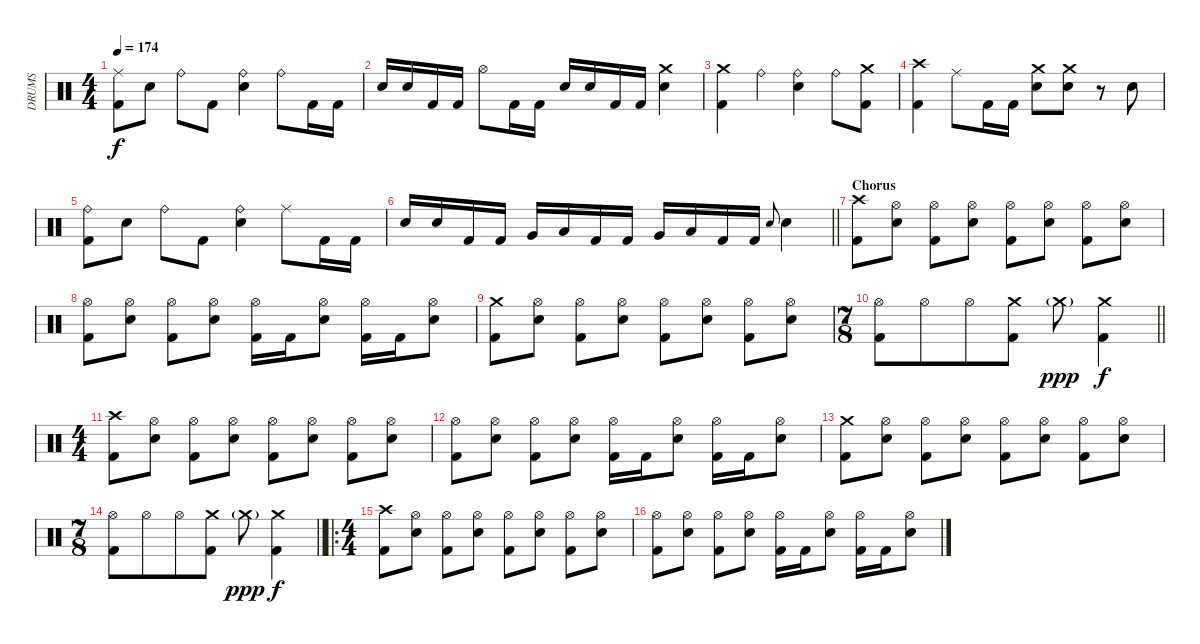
\track ("DRUMS" "DRUMS") {instrument percussion}
\staff {score}
\articulation defaults
\ts (4 4)
\tempo 174
\clef neutral
\ks c
("Ride (middle)" "Kick (hit) 2").8{dy f} "Snare (hit) 2".8 "Ride (bell)".8 "Kick (hit) 2".8 ("Ride (bell)" "Snare (hit) 2").4 "Ride (bell)".8 "Kick (hit) 2".16 "Kick (hit) 2".16 |
"Snare (hit) 2".16 "Snare (hit) 2".16 "Kick (hit) 2".16 "Kick (hit) 2".16 "Hi-Hat (open)".8 "Kick (hit) 2".16 "Kick (hit) 2".16 "Snare (hit) 2".16 "Snare (hit) 2".16 "Kick (hit) 2".16 "Kick (hit) 2".16 ("Crash medium (hit)" "Snare (hit) 2").4 |
("Crash medium (hit)" "Kick (hit) 2").4 "Ride (bell)".4 ("Ride (bell)" "Snare (hit) 2").4 "Ride (bell)".8 ("Crash medium (hit)" "Kick (hit) 2").8 |
("Crash high (hit)" "Kick (hit) 2").4 "Ride (middle)".8 "Kick (hit) 2".16 "Kick (hit) 2".16 ("Crash medium (hit)" "Snare (hit) 2").8 ("Crash medium (hit)" "Snare (hit) 2").8 r.8 "Snare (hit) 2".8 |
("Ride (bell)" "Kick (hit) 2").8 "Snare (hit) 2".8 "Ride (bell)".8 "Kick (hit) 2".8 ("Ride (bell)" "Snare (hit) 2").4 "Ride (middle)".8 "Kick (hit) 2".16 "Kick (hit) 2".16 |
\barLineRight lightlight "Snare (hit) 2".16 "Snare (hit) 2".16 "Kick (hit) 2".16 "Kick (hit) 2".16 "Very Low Tom (hit)".16 "Low Floor Tom (hit)".16 "Kick (hit) 2".16 "Kick (hit) 2".16 "Very Low Tom (hit)".16 "Low Floor Tom (hit)".16 "Kick (hit) 2".16 "Kick (hit) 2".16 "Snare (hit) 2".8{gr onbeat} "Snare (hit) 2".4
|
\section ("" "Chorus")
("Crash high (hit)" "Kick (hit) 2").8 ("Hi-Hat (open)" "Snare (hit) 2").8 ("Hi-Hat (open)" "Kick (hit) 2").8 ("Hi-Hat (open)" "Snare (hit) 2").8 ("Hi-Hat (open)" "Kick (hit) 2").8 ("Hi-Hat (open)" "Snare (hit) 2").8 ("Hi-Hat (open)" "Kick (hit) 2").8 ("Hi-Hat (open)" "Snare (hit) 2").8 |
("Hi-Hat (open)" "Kick (hit) 2").8 ("Hi-Hat (open)" "Snare (hit) 2").8 ("Hi-Hat (open)" "Kick (hit) 2").8 ("Hi-Hat (open)" "Snare (hit) 2").8 ("Hi-Hat (open)" "Kick (hit) 2").16 "Kick (hit) 2".16 ("Hi-Hat (open)" "Snare (hit) 2").8 ("Hi-Hat (open)" "Kick (hit) 2").16 "Kick (hit) 2".16 ("Hi-Hat (open)" "Snare (hit) 2").8 |
("Crash medium (hit)" "Kick (hit) 2").8 ("Hi-Hat (open)" "Snare (hit) 2").8 ("Hi-Hat (open)" "Kick (hit) 2").8 ("Hi-Hat (open)" "Snare (hit) 2").8 ("Hi-Hat (open)" "Kick (hit) 2").8 ("Hi-Hat (open)" "Snare (hit) 2").8 ("Hi-Hat (open)" "Kick (hit) 2").8 ("Hi-Hat (open)" "Snare (hit) 2").8 |
\ts (7 8)
\barLineRight lightlight
("Hi-Hat (open)" "Kick (hit) 2").8 "Hi-Hat (open)".8 "Hi-Hat (open)".8 ("Crash medium (hit)" "Kick (hit) 2").8 "Crash medium (hit)"{g}.8{dy ppp} ("Crash medium (hit)" "Kick (hit) 2").4{dy f} |
\ts (4 4)
("Crash high (hit)" "Kick (hit) 2").8 ("Hi-Hat (open)" "Snare (hit) 2").8 ("Hi-Hat (open)" "Kick (hit) 2").8 ("Hi-Hat (open)" "Snare (hit) 2").8 ("Hi-Hat (open)" "Kick (hit) 2").8 ("Hi-Hat (open)" "Snare (hit) 2").8 ("Hi-Hat (open)" "Kick (hit) 2").8 ("Hi-Hat (open)" "Snare (hit) 2").8 |
("Hi-Hat (open)" "Kick (hit) 2").8 ("Hi-Hat (open)" "Snare (hit) 2").8 ("Hi-Hat (open)" "Kick (hit) 2").8 ("Hi-Hat (open)" "Snare (hit) 2").8 ("Hi-Hat (open)" "Kick (hit) 2").16 "Kick (hit) 2".16 ("Hi-Hat (open)" "Snare (hit) 2").8 ("Hi-Hat (open)" "Kick (hit) 2").16 "Kick (hit) 2".16 ("Hi-Hat (open)" "Snare (hit) 2").8 |
("Crash medium (hit)" "Kick (hit) 2").8 ("Hi-Hat (open)" "Snare (hit) 2").8 ("Hi-Hat (open)" "Kick (hit) 2").8 ("Hi-Hat (open)" "Snare (hit) 2").8 ("Hi-Hat (open)" "Kick (hit) 2").8 ("Hi-Hat (open)" "Snare (hit) 2").8 ("Hi-Hat (open)" "Kick (hit) 2").8 ("Hi-Hat (open)" "Snare (hit) 2").8 |
\ts (7 8)
\barLineRight lightlight
("Hi-Hat (open)" "Kick (hit) 2").8 "Hi-Hat (open)".8 "Hi-Hat (open)".8 ("Crash medium (hit)" "Kick (hit) 2").8 "Crash medium (hit)"{g}.8{dy ppp} ("Crash medium (hit)" "Kick (hit) 2").4{dy f} |
\ro
\ts (4 4)
("Crash high (hit)" "Kick (hit) 2").8 ("Hi-Hat (open)" "Snare (hit) 2").8 ("Hi-Hat (open)" "Kick (hit) 2").8 ("Hi-Hat (open)" "Snare (hit) 2").8 ("Hi-Hat (open)" "Kick (hit) 2").8 ("Hi-Hat (open)" "Snare (hit) 2").8 ("Hi-Hat (open)" "Kick (hit) 2").8 ("Hi-Hat (open)" "Snare (hit) 2").8 |
("Hi-Hat (open)" "Kick (hit) 2").8 ("Hi-Hat (open)" "Snare (hit) 2").8 ("Hi-Hat (open)" "Kick (hit) 2").8 ("Hi-Hat (open)" "Snare (hit) 2").8 ("Hi-Hat (open)" "Kick (hit) 2").16 "Kick (hit) 2".16 ("Hi-Hat (open)" "Snare (hit) 2").8 ("Hi-Hat (open)" "Kick (hit) 2").16 "Kick (hit) 2".16 ("Hi-Hat (open)" "Snare (hit) 2").8
